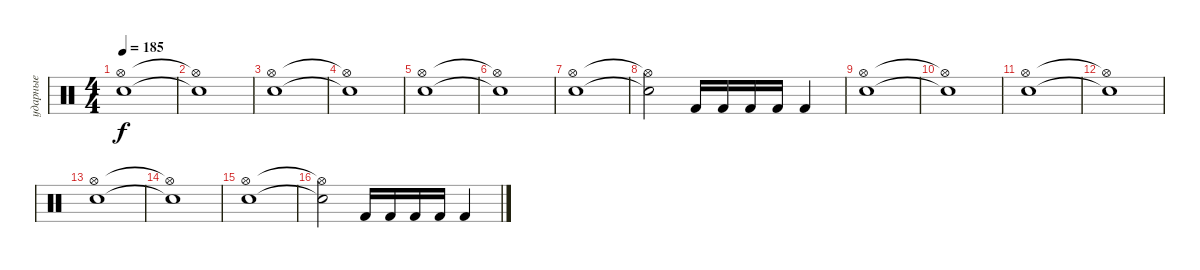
\track ("ударные" "ударные") {instrument percussion}
\staff {score}
\articulation defaults
\ts (4 4)
\tempo 185
\clef neutral
\ks c
("Hi-Hat (open)" "Snare (hit) 2").1{dy f} |
("Hi-Hat (open)"{t} "Snare (hit) 2"{t}).1 |
("Hi-Hat (open)" "Snare (hit) 2").1 |
("Hi-Hat (open)"{t} "Snare (hit) 2"{t}).1 |
("Hi-Hat (open)" "Snare (hit) 2").1 |
("Hi-Hat (open)"{t} "Snare (hit) 2"{t}).1 |
("Hi-Hat (open)" "Snare (hit) 2").1 |
("Hi-Hat (open)"{t} "Snare (hit) 2"{t}).2 "Kick (hit) 2".16 "Kick (hit) 2".16 "Kick (hit) 2".16 "Kick (hit) 2".16 "Kick (hit) 2".4 |
("Hi-Hat (open)" "Snare (hit) 2").1 |
("Hi-Hat (open)"{t} "Snare (hit) 2"{t}).1 |
("Hi-Hat (open)" "Snare (hit) 2").1 |
("Hi-Hat (open)"{t} "Snare (hit) 2"{t}).1 |
("Hi-Hat (open)" "Snare (hit) 2").1 |
("Hi-Hat (open)"{t} "Snare (hit) 2"{t}).1 |
("Hi-Hat (open)" "Snare (hit) 2").1 |
("Hi-Hat (open)"{t} "Snare (hit) 2"{t}).2 "Kick (hit) 2".16 "Kick (hit) 2".16 "Kick (hit) 2".16 "Kick (hit) 2".16 "Kick (hit) 2".4
